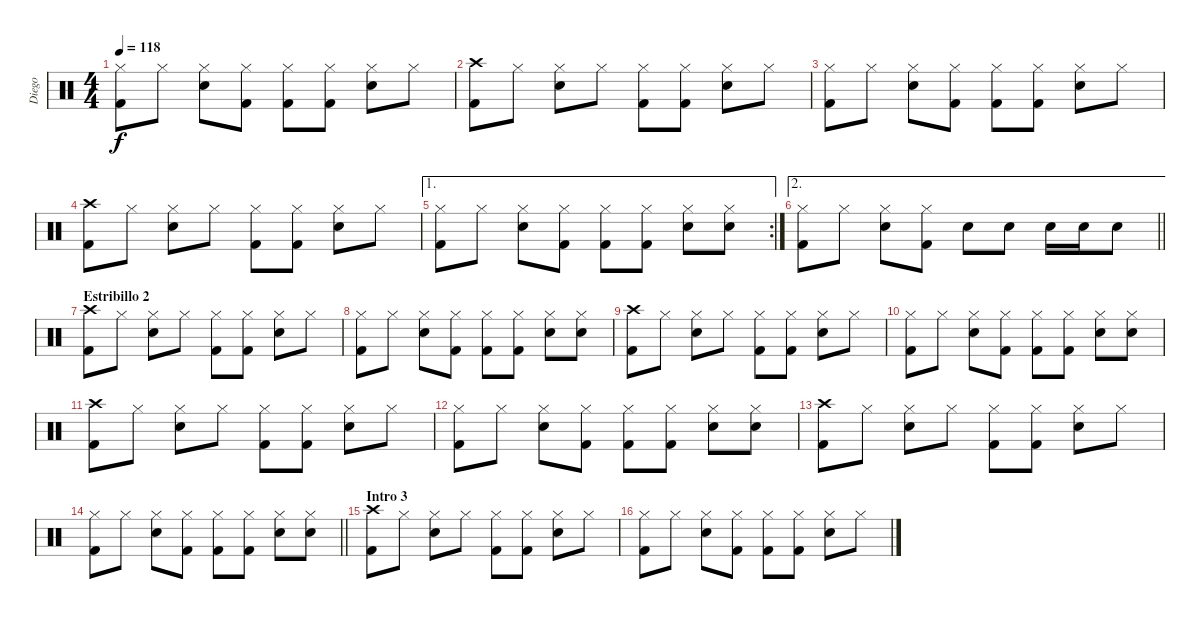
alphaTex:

\track ("Diego" "Diego") {instrument percussion}
\staff {score}
\articulation defaults
\ts (4 4)
\tempo 118
\clef neutral
\ks c
("Hi-Hat (closed)" "Kick (hit) 2").8{dy f} "Hi-Hat (closed)".8 ("Hi-Hat (closed)" "Snare (hit) 2").8 ("Hi-Hat (closed)" "Kick (hit) 2").8 ("Hi-Hat (closed)" "Kick (hit) 2").8 ("Hi-Hat (closed)" "Kick (hit) 2").8 ("Hi-Hat (closed)" "Snare (hit) 2").8 "Hi-Hat (closed)".8 |
("Crash high (hit)" "Kick (hit) 2").8 "Hi-Hat (closed)".8 ("Hi-Hat (closed)" "Snare (hit) 2").8 "Hi-Hat (closed)".8 ("Hi-Hat (closed)" "Kick (hit) 2").8 ("Hi-Hat (closed)" "Kick (hit) 2").8 ("Hi-Hat (closed)" "Snare (hit) 2").8 "Hi-Hat (closed)".8 |
("Hi-Hat (closed)" "Kick (hit) 2").8 "Hi-Hat (closed)".8 ("Hi-Hat (closed)" "Snare (hit) 2").8 ("Hi-Hat (closed)" "Kick (hit) 2").8 ("Hi-Hat (closed)" "Kick (hit) 2").8 ("Hi-Hat (closed)" "Kick (hit) 2").8 ("Hi-Hat (closed)" "Snare (hit) 2").8 "Hi-Hat (closed)".8 |
("Crash high (hit)" "Kick (hit) 2").8 "Hi-Hat (closed)".8 ("Hi-Hat (closed)" "Snare (hit) 2").8 "Hi-Hat (closed)".8 ("Hi-Hat (closed)" "Kick (hit) 2").8 ("Hi-Hat (closed)" "Kick (hit) 2").8 ("Hi-Hat (closed)" "Snare (hit) 2").8 "Hi-Hat (closed)".8 |
\ae 1
\rc 2
("Hi-Hat (closed)" "Kick (hit) 2").8 "Hi-Hat (closed)".8 ("Hi-Hat (closed)" "Snare (hit) 2").8 ("Hi-Hat (closed)" "Kick (hit) 2").8 ("Hi-Hat (closed)" "Kick (hit) 2").8 ("Hi-Hat (closed)" "Kick (hit) 2").8 ("Hi-Hat (closed)" "Snare (hit) 2").8 ("Hi-Hat (closed)" "Snare (hit) 2").8 |
\ae 2
\barLineRight lightlight
("Hi-Hat (closed)" "Kick (hit) 2").8 "Hi-Hat (closed)".8 ("Hi-Hat (closed)" "Snare (hit) 2").8 ("Hi-Hat (closed)" "Kick (hit) 2").8 "Snare (hit) 2".8 "Snare (hit) 2".8 "Snare (hit) 2".16 "Snare (hit) 2".16 "Snare (hit) 2".8 |
\section ("" "Estribillo 2")
("Crash high (hit)" "Kick (hit) 2").8 "Hi-Hat (closed)".8 ("Hi-Hat (closed)" "Snare (hit) 2").8 "Hi-Hat (closed)".8 ("Hi-Hat (closed)" "Kick (hit) 2").8 ("Hi-Hat (closed)" "Kick (hit) 2").8 ("Hi-Hat (closed)" "Snare (hit) 2").8 "Hi-Hat (closed)".8 |
("Hi-Hat (closed)" "Kick (hit) 2").8 "Hi-Hat (closed)".8 ("Hi-Hat (closed)" "Snare (hit) 2").8 ("Hi-Hat (closed)" "Kick (hit) 2").8 ("Hi-Hat (closed)" "Kick (hit) 2").8 ("Hi-Hat (closed)" "Kick (hit) 2").8 ("Hi-Hat (closed)" "Snare (hit) 2").8 ("Hi-Hat (closed)" "Snare (hit) 2").8 |
("Crash high (hit)" "Kick (hit) 2").8 "Hi-Hat (closed)".8 ("Hi-Hat (closed)" "Snare (hit) 2").8 "Hi-Hat (closed)".8 ("Hi-Hat (closed)" "Kick (hit) 2").8 ("Hi-Hat (closed)" "Kick (hit) 2").8 ("Hi-Hat (closed)" "Snare (hit) 2").8 "Hi-Hat (closed)".8 |
("Hi-Hat (closed)" "Kick (hit) 2").8 "Hi-Hat (closed)".8 ("Hi-Hat (closed)" "Snare (hit) 2").8 ("Hi-Hat (closed)" "Kick (hit) 2").8 ("Hi-Hat (closed)" "Kick (hit) 2").8 ("Hi-Hat (closed)" "Kick (hit) 2").8 ("Hi-Hat (closed)" "Snare (hit) 2").8 ("Hi-Hat (closed)" "Snare (hit) 2").8 |
("Crash high (hit)" "Kick (hit) 2").8 "Hi-Hat (closed)".8 ("Hi-Hat (closed)" "Snare (hit) 2").8 "Hi-Hat (closed)".8 ("Hi-Hat (closed)" "Kick (hit) 2").8 ("Hi-Hat (closed)" "Kick (hit) 2").8 ("Hi-Hat (closed)" "Snare (hit) 2").8 "Hi-Hat (closed)".8 |
("Hi-Hat (closed)" "Kick (hit) 2").8 "Hi-Hat (closed)".8 ("Hi-Hat (closed)" "Snare (hit) 2").8 ("Hi-Hat (closed)" "Kick (hit) 2").8 ("Hi-Hat (closed)" "Kick (hit) 2").8 ("Hi-Hat (closed)" "Kick (hit) 2").8 ("Hi-Hat (closed)" "Snare (hit) 2").8 ("Hi-Hat (closed)" "Snare (hit) 2").8 |
("Crash high (hit)" "Kick (hit) 2").8 "Hi-Hat (closed)".8 ("Hi-Hat (closed)" "Snare (hit) 2").8 "Hi-Hat (closed)".8 ("Hi-Hat (closed)" "Kick (hit) 2").8 ("Hi-Hat (closed)" "Kick (hit) 2").8 ("Hi-Hat (closed)" "Snare (hit) 2").8 "Hi-Hat (closed)".8 |
\barLineRight lightlight
("Hi-Hat (closed)" "Kick (hit) 2").8 "Hi-Hat (closed)".8 ("Hi-Hat (closed)" "Snare (hit) 2").8 ("Hi-Hat (closed)" "Kick (hit) 2").8 ("Hi-Hat (closed)" "Kick (hit) 2").8 ("Hi-Hat (closed)" "Kick (hit) 2").8 ("Hi-Hat (closed)" "Snare (hit) 2").8 ("Hi-Hat (closed)" "Snare (hit) 2").8 |
\section ("" "Intro 3")
("Crash high (hit)" "Kick (hit) 2").8 "Hi-Hat (closed)".8 ("Hi-Hat (closed)" "Snare (hit) 2").8 "Hi-Hat (closed)".8 ("Hi-Hat (closed)" "Kick (hit) 2").8 ("Hi-Hat (closed)" "Kick (hit) 2").8 ("Hi-Hat (closed)" "Snare (hit) 2").8 "Hi-Hat (closed)".8 |
("Hi-Hat (closed)" "Kick (hit) 2").8 "Hi-Hat (closed)".8 ("Hi-Hat (closed)" "Snare (hit) 2").8 ("Hi-Hat (closed)" "Kick (hit) 2").8 ("Hi-Hat (closed)" "Kick (hit) 2").8 ("Hi-Hat (closed)" "Kick (hit) 2").8 ("Hi-Hat (closed)" "Snare (hit) 2").8 "Hi-Hat (closed)".8
